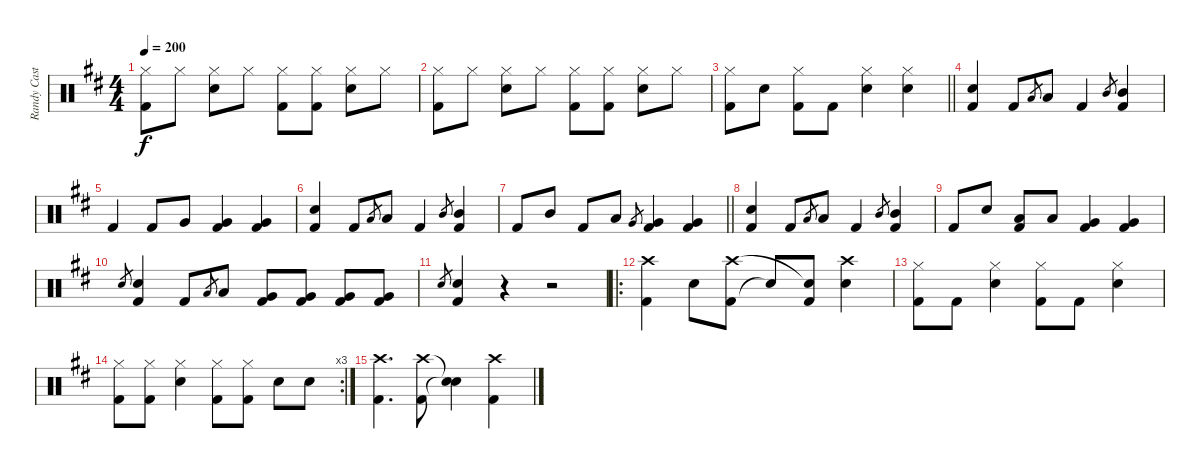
\track ("Randy Castillo" "Randy Cast") {instrument percussion}
\staff {score}
\articulation defaults
\ts (4 4)
\tempo 200
\clef neutral
\ks d
("Hi-Hat (closed)" "Kick (hit) 2").8{dy f} "Hi-Hat (closed)".8 ("Hi-Hat (closed)" "Snare (hit) 2").8 "Hi-Hat (closed)".8 ("Hi-Hat (closed)" "Kick (hit) 2").8 ("Hi-Hat (closed)" "Kick (hit) 2").8 ("Hi-Hat (closed)" "Snare (hit) 2").8 "Hi-Hat (closed)".8 |
("Hi-Hat (closed)" "Kick (hit) 2").8 "Hi-Hat (closed)".8 ("Hi-Hat (closed)" "Snare (hit) 2").8 "Hi-Hat (closed)".8 ("Hi-Hat (closed)" "Kick (hit) 2").8 ("Hi-Hat (closed)" "Kick (hit) 2").8 ("Hi-Hat (closed)" "Snare (hit) 2").8 "Hi-Hat (closed)".8 |
\barLineRight lightlight
("Hi-Hat (closed)" "Kick (hit) 2").8 "Snare (hit) 2".8 ("Hi-Hat (closed)" "Kick (hit) 2").8 "Kick (hit) 2".8 ("Hi-Hat (closed)" "Snare (hit) 2").4 ("Hi-Hat (closed)" "Snare (hit) 2").4 |
("Snare (hit) 2" "Kick (hit) 2").4 "Kick (hit) 2".8 "Low Tom (hit)".8{gr} "Low Tom (hit)".8 "Kick (hit) 2".4 "Mid Tom (hit)".8{gr} ("Mid Tom (hit)" "Kick (hit) 2").4 |
"Kick (hit) 2".4 "Kick (hit) 2".8 "Very Low Tom (hit)".8 ("Very Low Tom (hit)" "Kick (hit) 2").4 ("Very Low Tom (hit)" "Kick (hit) 2").4 |
("Snare (hit) 2" "Kick (hit) 2").4 "Kick (hit) 2".8 "Low Tom (hit)".8{gr} "Low Tom (hit)".8 "Kick (hit) 2".4 "Mid Tom (hit)".8{gr} ("Mid Tom (hit)" "Kick (hit) 2").4 |
\barLineRight lightlight "Kick (hit) 2".8 "Mid Tom (hit)".8 "Kick (hit) 2".8 "Low Tom (hit)".8 "Very Low Tom (hit)".8{gr}
("Kick (hit) 2" "Very Low Tom (hit)").4 ("Kick (hit) 2" "Very Low Tom (hit)").4 |
("Snare (hit) 2" "Kick (hit) 2").4 "Kick (hit) 2".8 "Low Tom (hit)".8{gr} "Low Tom (hit)".8 "Kick (hit) 2".4 "Mid Tom (hit)".8{gr} ("Mid Tom (hit)" "Kick (hit) 2").4 |
"Kick (hit) 2".8 "Snare (hit)".8 ("Low Tom (hit)" "Kick (hit) 2").8 "Low Tom (hit)".8 ("Kick (hit) 2" "Very Low Tom (hit)").4 ("Kick (hit) 2" "Very Low Tom (hit)").4 |
"Snare (hit) 2".8{gr} ("Snare (hit) 2" "Kick (hit) 2").4 "Kick (hit) 2".8 "Low Tom (hit)".8{gr} "Low Tom (hit)".8 ("Kick (hit) 2" "Very Low Tom (hit)").8 ("Kick (hit) 2" "Very Low Tom (hit)").8 ("Kick (hit) 2" "Very Low Tom (hit)").8 ("Kick (hit) 2" "Very Low Tom (hit)").8 |
"Snare (hit) 2".8{gr} ("Snare (hit) 2" "Kick (hit) 2").4 r.4 r.2 |
\ro
("Kick (hit) 2" "Crash high (hit)").4 "Snare (hit) 2".8 ("Kick (hit) 2" "Crash high (hit)").8 "Snare (hit)"{t}.8 ("Kick (hit) 2" "Snare (hit)"{t}).8 ("Snare (hit) 2" "Crash high (hit)").4 |
("Hi-Hat (closed)" "Kick (hit) 2").8 "Kick (hit) 2".8 ("Hi-Hat (closed)" "Snare (hit) 2").4 ("Hi-Hat (closed)" "Kick (hit) 2").8 "Kick (hit) 2".8 ("Hi-Hat (closed)" "Snare (hit) 2").4 |
\rc 3
("Hi-Hat (closed)" "Kick (hit) 2").8 ("Hi-Hat (closed)" "Kick (hit) 2").8 ("Hi-Hat (closed)" "Snare (hit) 2").4 ("Hi-Hat (closed)" "Kick (hit) 2").8 ("Hi-Hat (closed)" "Kick (hit) 2").8 "Snare (hit) 2".8 "Snare (hit) 2".8 |
("Kick (hit) 2" "Crash high (hit)").4{d} ("Kick (hit) 2" "Crash high (hit)").8 ("Snare (hit)"{t} "Snare (hit)"{t}).4 ("Kick (hit) 2" "Crash high (hit)").4
